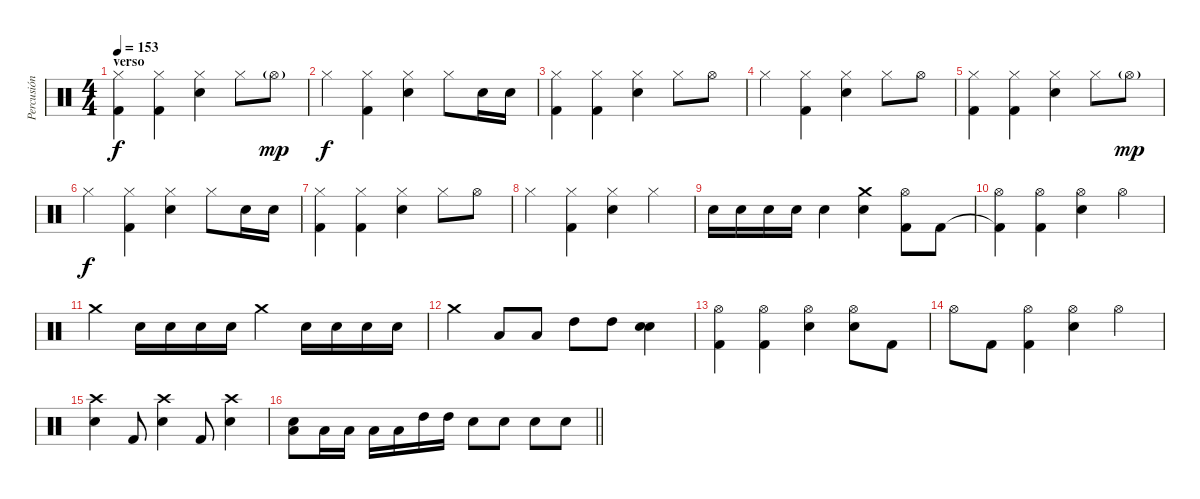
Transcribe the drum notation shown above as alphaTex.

\track ("Percusión" "Percusión") {instrument percussion}
\staff {score}
\articulation defaults
\ts (4 4)
\section ("" "verso")
\tempo 153
\clef neutral
\ks c
("Hi-Hat (closed)" "Kick (hit) 2").4{dy f} ("Hi-Hat (closed)" "Kick (hit) 2").4 ("Hi-Hat (closed)" "Electric Snare (hit)").4 "Hi-Hat (closed)".8 "Hi-Hat (open)"{g}.8{dy mp} |
"Hi-Hat (closed)".4{dy f} ("Hi-Hat (closed)" "Kick (hit) 2").4 ("Hi-Hat (closed)" "Electric Snare (hit)").4 "Hi-Hat (closed)".8 "Electric Snare (hit)".16 "Electric Snare (hit)".16 |
("Hi-Hat (closed)" "Kick (hit) 2").4 ("Hi-Hat (closed)" "Kick (hit) 2").4 ("Hi-Hat (closed)" "Electric Snare (hit)").4 "Hi-Hat (closed)".8 "Hi-Hat (open)".8 |
"Hi-Hat (closed)".4 ("Hi-Hat (closed)" "Kick (hit) 2").4 ("Hi-Hat (closed)" "Electric Snare (hit)").4 "Hi-Hat (closed)".8 "Hi-Hat (open)".8 |
("Hi-Hat (closed)" "Kick (hit) 2").4 ("Hi-Hat (closed)" "Kick (hit) 2").4 ("Hi-Hat (closed)" "Electric Snare (hit)").4 "Hi-Hat (closed)".8 "Hi-Hat (open)"{g}.8{dy mp} |
"Hi-Hat (closed)".4{dy f} ("Hi-Hat (closed)" "Kick (hit) 2").4 ("Hi-Hat (closed)" "Electric Snare (hit)").4 "Hi-Hat (closed)".8 "Electric Snare (hit)".16 "Electric Snare (hit)".16 |
("Hi-Hat (closed)" "Kick (hit) 2").4 ("Hi-Hat (closed)" "Kick (hit) 2").4 ("Hi-Hat (closed)" "Electric Snare (hit)").4 "Hi-Hat (closed)".8 "Hi-Hat (open)".8 |
"Hi-Hat (closed)".4 ("Hi-Hat (closed)" "Kick (hit) 2").4 ("Hi-Hat (closed)" "Electric Snare (hit)").4 "Hi-Hat (closed)".4 |
"Electric Snare (hit)".16 "Electric Snare (hit)".16 "Electric Snare (hit)".16 "Electric Snare (hit)".16 "Electric Snare (hit)".4 ("Electric Snare (hit)" "Crash medium (hit)").4 ("Kick (hit) 2" "Hi-Hat (open)").8 "Kick (hit) 2".8 |
("Kick (hit) 2"{t} "Hi-Hat (open)").4 ("Kick (hit) 2" "Hi-Hat (open)").4 ("Electric Snare (hit)" "Hi-Hat (open)").4 "Hi-Hat (open)".4 |
"Crash medium (hit)".4 "Electric Snare (hit)".16 "Electric Snare (hit)".16 "Electric Snare (hit)".16 "Electric Snare (hit)".16 "Crash medium (hit)".4 "Electric Snare (hit)".16 "Electric Snare (hit)".16 "Electric Snare (hit)".16 "Electric Snare (hit)".16 |
"Crash medium (hit)".4 "Low Tom (hit)".8 "Low Tom (hit)".8 "High Tom (hit)".8 "High Tom (hit)".8 ("Electric Snare (hit)" "Electric Snare (hit)").4 |
("Hi-Hat (open)" "Kick (hit) 2").4 ("Hi-Hat (open)" "Kick (hit) 2").4 ("Hi-Hat (open)" "Electric Snare (hit)").4 ("Hi-Hat (open)" "Electric Snare (hit)").8 "Kick (hit) 2".8 |
"Hi-Hat (open)".8 "Kick (hit) 2".8 ("Hi-Hat (open)" "Kick (hit) 2").4 ("Hi-Hat (open)" "Electric Snare (hit)").4 "Hi-Hat (open)".4 |
("Crash high (hit)" "Electric Snare (hit)").4 "Kick (hit) 2".8 ("Crash high (hit)" "Electric Snare (hit)").4 "Kick (hit) 2".8 ("Crash high (hit)" "Electric Snare (hit)").4 |
\barLineRight lightlight
("Low Floor Tom (hit)" "Electric Snare (hit)").8 "Low Floor Tom (hit)".16 "Low Floor Tom (hit)".16 "Low Tom (hit)".16 "Low Tom (hit)".16 "High Tom (hit)".16 "High Tom (hit)".16 "Electric Snare (hit)".8 "Electric Snare (hit)".8 "Electric Snare (hit)".8 "Electric Snare (hit)".8
